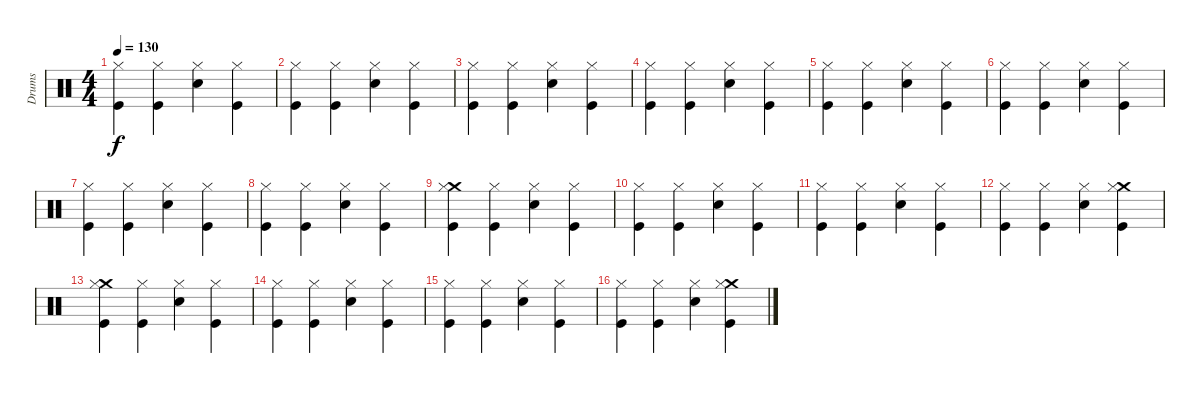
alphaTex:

\track ("Drums" "Drums") {instrument percussion}
\staff {score}
\articulation defaults
\ts (4 4)
\tempo 130
\clef neutral
\ks c
("Kick (hit)" "Hi-Hat (closed)").4{dy f} ("Kick (hit)" "Hi-Hat (closed)").4 ("Snare (hit) 2" "Hi-Hat (closed)").4 ("Kick (hit)" "Hi-Hat (closed)").4 |
("Kick (hit)" "Hi-Hat (closed)").4 ("Kick (hit)" "Hi-Hat (closed)").4 ("Snare (hit) 2" "Hi-Hat (closed)").4 ("Kick (hit)" "Hi-Hat (closed)").4 |
("Kick (hit)" "Hi-Hat (closed)").4 ("Kick (hit)" "Hi-Hat (closed)").4 ("Snare (hit) 2" "Hi-Hat (closed)").4 ("Kick (hit)" "Hi-Hat (closed)").4 |
("Kick (hit)" "Hi-Hat (closed)").4 ("Kick (hit)" "Hi-Hat (closed)").4 ("Snare (hit) 2" "Hi-Hat (closed)").4 ("Kick (hit)" "Hi-Hat (closed)").4 |
("Kick (hit)" "Hi-Hat (closed)").4 ("Kick (hit)" "Hi-Hat (closed)").4 ("Snare (hit) 2" "Hi-Hat (closed)").4 ("Kick (hit)" "Hi-Hat (closed)").4 |
("Kick (hit)" "Hi-Hat (closed)").4 ("Kick (hit)" "Hi-Hat (closed)").4 ("Snare (hit) 2" "Hi-Hat (closed)").4 ("Kick (hit)" "Hi-Hat (closed)").4 |
("Kick (hit)" "Hi-Hat (closed)").4 ("Kick (hit)" "Hi-Hat (closed)").4 ("Snare (hit) 2" "Hi-Hat (closed)").4 ("Kick (hit)" "Hi-Hat (closed)").4 |
("Kick (hit)" "Hi-Hat (closed)").4 ("Kick (hit)" "Hi-Hat (closed)").4 ("Snare (hit) 2" "Hi-Hat (closed)").4 ("Kick (hit)" "Hi-Hat (closed)").4 |
("Kick (hit)" "Crash medium (hit)" "Hi-Hat (closed)").4 ("Kick (hit)" "Hi-Hat (closed)").4 ("Snare (hit) 2" "Hi-Hat (closed)").4 ("Kick (hit)" "Hi-Hat (closed)").4 |
("Kick (hit)" "Hi-Hat (closed)").4 ("Kick (hit)" "Hi-Hat (closed)").4 ("Snare (hit) 2" "Hi-Hat (closed)").4 ("Kick (hit)" "Hi-Hat (closed)").4 |
("Kick (hit)" "Hi-Hat (closed)").4 ("Kick (hit)" "Hi-Hat (closed)").4 ("Snare (hit) 2" "Hi-Hat (closed)").4 ("Kick (hit)" "Hi-Hat (closed)").4 |
("Kick (hit)" "Hi-Hat (closed)").4 ("Kick (hit)" "Hi-Hat (closed)").4 ("Snare (hit) 2" "Hi-Hat (closed)").4 ("Kick (hit)" "Crash medium (hit)" "Hi-Hat (closed)").4 |
("Kick (hit)" "Crash medium (hit)" "Hi-Hat (closed)").4 ("Kick (hit)" "Hi-Hat (closed)").4 ("Snare (hit) 2" "Hi-Hat (closed)").4 ("Kick (hit)" "Hi-Hat (closed)").4 |
("Kick (hit)" "Hi-Hat (closed)").4 ("Kick (hit)" "Hi-Hat (closed)").4 ("Snare (hit) 2" "Hi-Hat (closed)").4 ("Kick (hit)" "Hi-Hat (closed)").4 |
("Kick (hit)" "Hi-Hat (closed)").4 ("Kick (hit)" "Hi-Hat (closed)").4 ("Snare (hit) 2" "Hi-Hat (closed)").4 ("Kick (hit)" "Hi-Hat (closed)").4 |
("Kick (hit)" "Hi-Hat (closed)").4 ("Kick (hit)" "Hi-Hat (closed)").4 ("Snare (hit) 2" "Hi-Hat (closed)").4 ("Kick (hit)" "Crash medium (hit)" "Hi-Hat (closed)").4
